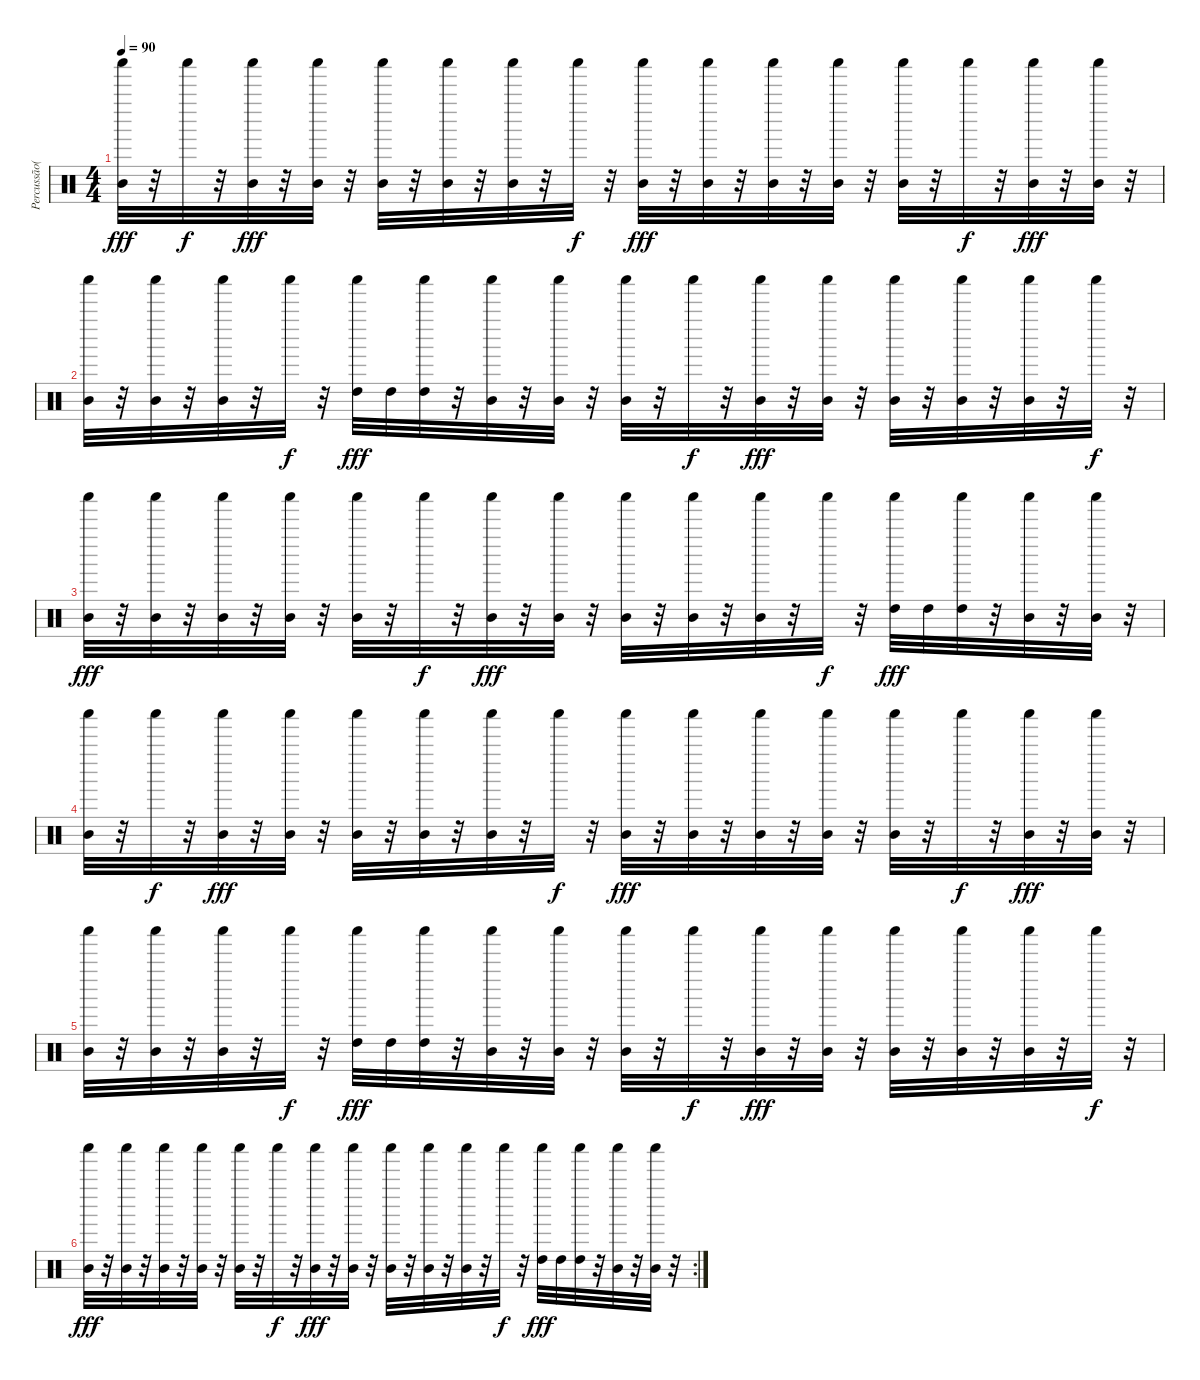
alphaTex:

\track ("Percussão(Percussion)-1" "Percussão(") {instrument percussion}
\staff {score}
\articulation defaults
\ts (4 4)
\tempo 90
\clef neutral
\ks c
("Mid Tom (hit)" "Shaker (hit)").32{dy fff} r.32 "Shaker (hit)".32{dy f} r.32 ("Mid Tom (hit)" "Shaker (hit)").32{dy fff} r.32 ("Mid Tom (hit)" "Shaker (hit)").32 r.32 ("Mid Tom (hit)" "Shaker (hit)").32 r.32 ("Mid Tom (hit)" "Shaker (hit)").32 r.32 ("Mid Tom (hit)" "Shaker (hit)").32 r.32 "Shaker (hit)".32{dy f} r.32 ("Mid Tom (hit)" "Shaker (hit)").32{dy fff} r.32 ("Mid Tom (hit)" "Shaker (hit)").32 r.32 ("Mid Tom (hit)" "Shaker (hit)").32 r.32 ("Mid Tom (hit)" "Shaker (hit)").32 r.32 ("Mid Tom (hit)" "Shaker (hit)").32 r.32 "Shaker (hit)".32{dy f} r.32 ("Mid Tom (hit)" "Shaker (hit)").32{dy fff} r.32 ("Mid Tom (hit)" "Shaker (hit)").32 r.32 |
("Mid Tom (hit)" "Shaker (hit)").32 r.32 ("Mid Tom (hit)" "Shaker (hit)").32 r.32 ("Mid Tom (hit)" "Shaker (hit)").32 r.32 "Shaker (hit)".32{dy f} r.32 ("High Tom (hit)" "Shaker (hit)").32{dy fff} "High Tom (hit)".32 ("High Tom (hit)" "Shaker (hit)").32 r.32 ("Mid Tom (hit)" "Shaker (hit)").32 r.32 ("Mid Tom (hit)" "Shaker (hit)").32 r.32 ("Mid Tom (hit)" "Shaker (hit)").32 r.32 "Shaker (hit)".32{dy f} r.32 ("Mid Tom (hit)" "Shaker (hit)").32{dy fff} r.32 ("Mid Tom (hit)" "Shaker (hit)").32 r.32 ("Mid Tom (hit)" "Shaker (hit)").32 r.32 ("Mid Tom (hit)" "Shaker (hit)").32 r.32 ("Mid Tom (hit)" "Shaker (hit)").32 r.32 "Shaker (hit)".32{dy f} r.32 |
("Mid Tom (hit)" "Shaker (hit)").32{dy fff} r.32 ("Mid Tom (hit)" "Shaker (hit)").32 r.32 ("Mid Tom (hit)" "Shaker (hit)").32 r.32 ("Mid Tom (hit)" "Shaker (hit)").32 r.32 ("Mid Tom (hit)" "Shaker (hit)").32 r.32 "Shaker (hit)".32{dy f} r.32 ("Mid Tom (hit)" "Shaker (hit)").32{dy fff} r.32 ("Mid Tom (hit)" "Shaker (hit)").32 r.32 ("Mid Tom (hit)" "Shaker (hit)").32 r.32 ("Mid Tom (hit)" "Shaker (hit)").32 r.32 ("Mid Tom (hit)" "Shaker (hit)").32 r.32 "Shaker (hit)".32{dy f} r.32 ("High Tom (hit)" "Shaker (hit)").32{dy fff} "High Tom (hit)".32 ("High Tom (hit)" "Shaker (hit)").32 r.32 ("Mid Tom (hit)" "Shaker (hit)").32 r.32 ("Mid Tom (hit)" "Shaker (hit)").32 r.32 |
("Mid Tom (hit)" "Shaker (hit)").32 r.32 "Shaker (hit)".32{dy f} r.32 ("Mid Tom (hit)" "Shaker (hit)").32{dy fff} r.32 ("Mid Tom (hit)" "Shaker (hit)").32 r.32 ("Mid Tom (hit)" "Shaker (hit)").32 r.32 ("Mid Tom (hit)" "Shaker (hit)").32 r.32 ("Mid Tom (hit)" "Shaker (hit)").32 r.32 "Shaker (hit)".32{dy f} r.32 ("Mid Tom (hit)" "Shaker (hit)").32{dy fff} r.32 ("Mid Tom (hit)" "Shaker (hit)").32 r.32 ("Mid Tom (hit)" "Shaker (hit)").32 r.32 ("Mid Tom (hit)" "Shaker (hit)").32 r.32 ("Mid Tom (hit)" "Shaker (hit)").32 r.32 "Shaker (hit)".32{dy f} r.32 ("Mid Tom (hit)" "Shaker (hit)").32{dy fff} r.32 ("Mid Tom (hit)" "Shaker (hit)").32 r.32 |
("Mid Tom (hit)" "Shaker (hit)").32 r.32 ("Mid Tom (hit)" "Shaker (hit)").32 r.32 ("Mid Tom (hit)" "Shaker (hit)").32 r.32 "Shaker (hit)".32{dy f} r.32 ("High Tom (hit)" "Shaker (hit)").32{dy fff} "High Tom (hit)".32 ("High Tom (hit)" "Shaker (hit)").32 r.32 ("Mid Tom (hit)" "Shaker (hit)").32 r.32 ("Mid Tom (hit)" "Shaker (hit)").32 r.32 ("Mid Tom (hit)" "Shaker (hit)").32 r.32 "Shaker (hit)".32{dy f} r.32 ("Mid Tom (hit)" "Shaker (hit)").32{dy fff} r.32 ("Mid Tom (hit)" "Shaker (hit)").32 r.32 ("Mid Tom (hit)" "Shaker (hit)").32 r.32 ("Mid Tom (hit)" "Shaker (hit)").32 r.32 ("Mid Tom (hit)" "Shaker (hit)").32 r.32 "Shaker (hit)".32{dy f} r.32 |
\rc 2
("Mid Tom (hit)" "Shaker (hit)").32{dy fff} r.32 ("Mid Tom (hit)" "Shaker (hit)").32 r.32 ("Mid Tom (hit)" "Shaker (hit)").32 r.32 ("Mid Tom (hit)" "Shaker (hit)").32 r.32 ("Mid Tom (hit)" "Shaker (hit)").32 r.32 "Shaker (hit)".32{dy f} r.32 ("Mid Tom (hit)" "Shaker (hit)").32{dy fff} r.32 ("Mid Tom (hit)" "Shaker (hit)").32 r.32 ("Mid Tom (hit)" "Shaker (hit)").32 r.32 ("Mid Tom (hit)" "Shaker (hit)").32 r.32 ("Mid Tom (hit)" "Shaker (hit)").32 r.32 "Shaker (hit)".32{dy f} r.32 ("High Tom (hit)" "Shaker (hit)").32{dy fff} "High Tom (hit)".32 ("High Tom (hit)" "Shaker (hit)").32 r.32 ("Mid Tom (hit)" "Shaker (hit)").32 r.32 ("Mid Tom (hit)" "Shaker (hit)").32 r.32
